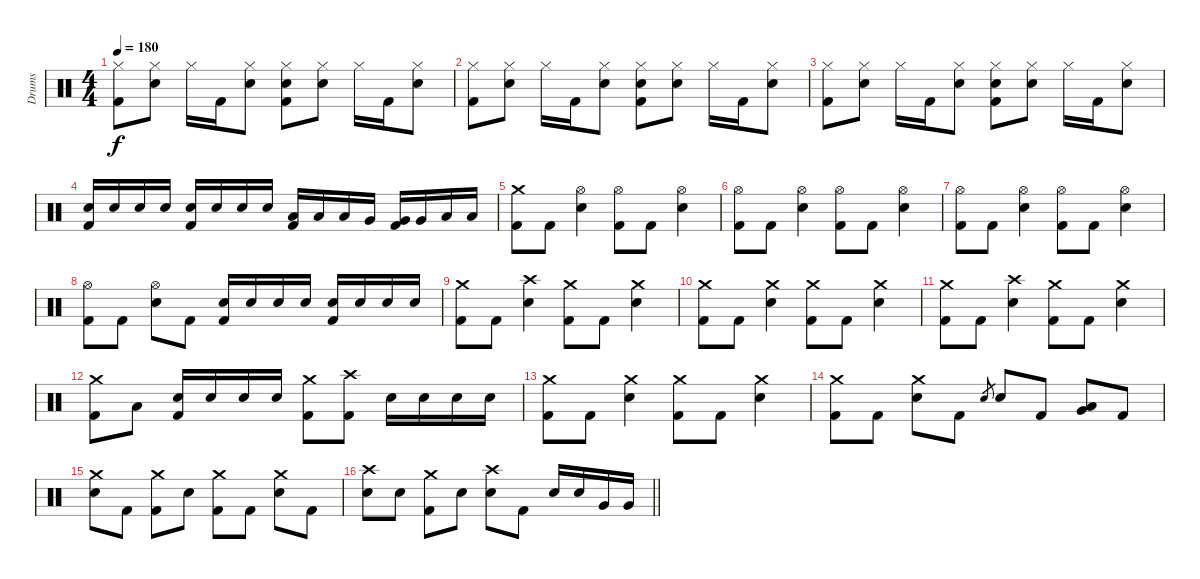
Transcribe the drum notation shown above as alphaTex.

\track ("Drums" "Drums") {instrument percussion}
\staff {score}
\articulation defaults
\ts (4 4)
\tempo 180
\clef neutral
\ks c
("Hi-Hat (closed)" "Kick (hit) 2").8{dy f volume 12 balance 8} ("Hi-Hat (closed)" "Electric Snare (hit)").8{volume 8 balance 16} "Hi-Hat (closed)".16 "Kick (hit) 2".16 ("Hi-Hat (closed)" "Electric Snare (hit)").8 ("Hi-Hat (closed)" "Electric Snare (hit)" "Kick (hit) 2").8{volume 12 balance 8} ("Hi-Hat (closed)" "Electric Snare (hit)").8{volume 8 balance 16} "Hi-Hat (closed)".16 "Kick (hit) 2".16 ("Hi-Hat (closed)" "Electric Snare (hit)").8 |
("Hi-Hat (closed)" "Kick (hit) 2").8{volume 12 balance 8} ("Hi-Hat (closed)" "Electric Snare (hit)").8{volume 8 balance 16} "Hi-Hat (closed)".16 "Kick (hit) 2".16 ("Hi-Hat (closed)" "Electric Snare (hit)").8 ("Hi-Hat (closed)" "Electric Snare (hit)" "Kick (hit) 2").8{volume 12 balance 8} ("Hi-Hat (closed)" "Electric Snare (hit)").8{volume 8 balance 16} "Hi-Hat (closed)".16 "Kick (hit) 2".16 ("Hi-Hat (closed)" "Electric Snare (hit)").8 |
("Hi-Hat (closed)" "Kick (hit) 2").8{volume 12 balance 8} ("Hi-Hat (closed)" "Electric Snare (hit)").8{volume 8 balance 16} "Hi-Hat (closed)".16 "Kick (hit) 2".16 ("Hi-Hat (closed)" "Electric Snare (hit)").8 ("Hi-Hat (closed)" "Electric Snare (hit)" "Kick (hit) 2").8{volume 12 balance 8} ("Hi-Hat (closed)" "Electric Snare (hit)").8{volume 8 balance 16} "Hi-Hat (closed)".16 "Kick (hit) 2".16 ("Hi-Hat (closed)" "Electric Snare (hit)").8 |
("Electric Snare (hit)" "Kick (hit) 2").16{volume 12 balance 8} "Electric Snare (hit)".16 "Electric Snare (hit)".16 "Electric Snare (hit)".16 ("Electric Snare (hit)" "Kick (hit) 2").16 "Electric Snare (hit)".16 "Electric Snare (hit)".16 "Electric Snare (hit)".16 ("Low Tom (hit)" "Kick (hit) 2").16 "Low Tom (hit)".16 "Low Tom (hit)".16 "Very Low Tom (hit)".16 ("Very Low Tom (hit)" "Kick (hit) 2").16 "Very Low Tom (hit)".16 "Low Floor Tom (hit)".16 "Low Floor Tom (hit)".16 |
("Crash medium (hit)" "Kick (hit) 2").8 "Kick (hit) 2".8 ("Hi-Hat (open)" "Electric Snare (hit)").4 ("Hi-Hat (open)" "Kick (hit) 2").8 "Kick (hit) 2".8 ("Hi-Hat (open)" "Electric Snare (hit)").4 |
("Hi-Hat (open)" "Kick (hit) 2").8 "Kick (hit) 2".8 ("Hi-Hat (open)" "Electric Snare (hit)").4 ("Hi-Hat (open)" "Kick (hit) 2").8 "Kick (hit) 2".8 ("Hi-Hat (open)" "Electric Snare (hit)").4 |
("Hi-Hat (open)" "Kick (hit) 2").8 "Kick (hit) 2".8 ("Hi-Hat (open)" "Electric Snare (hit)").4 ("Hi-Hat (open)" "Kick (hit) 2").8 "Kick (hit) 2".8 ("Hi-Hat (open)" "Electric Snare (hit)").4 |
("Hi-Hat (open)" "Kick (hit) 2").8 "Kick (hit) 2".8 ("Hi-Hat (open)" "Electric Snare (hit)").8 "Kick (hit) 2".8 ("Electric Snare (hit)" "Kick (hit) 2").16 "Electric Snare (hit)".16 "Electric Snare (hit)".16 "Electric Snare (hit)".16 ("Electric Snare (hit)" "Kick (hit) 2").16 "Electric Snare (hit)".16 "Electric Snare (hit)".16 "Electric Snare (hit)".16 |
("Crash medium (hit)" "Kick (hit) 2").8 "Kick (hit) 2".8 ("Crash high (hit)" "Electric Snare (hit)").4 ("Crash medium (hit)" "Kick (hit) 2").8 "Kick (hit) 2".8 ("Crash medium (hit)" "Electric Snare (hit)").4 |
("Crash medium (hit)" "Kick (hit) 2").8 "Kick (hit) 2".8 ("Crash medium (hit)" "Electric Snare (hit)").4 ("Crash medium (hit)" "Kick (hit) 2").8 "Kick (hit) 2".8 ("Crash medium (hit)" "Electric Snare (hit)").4 |
("Crash medium (hit)" "Kick (hit) 2").8 "Kick (hit) 2".8 ("Crash high (hit)" "Electric Snare (hit)").4 ("Crash medium (hit)" "Kick (hit) 2").8 "Kick (hit) 2".8 ("Crash medium (hit)" "Electric Snare (hit)").4 |
("Crash medium (hit)" "Kick (hit) 2").8 "Low Floor Tom (hit)".8 ("Electric Snare (hit)" "Kick (hit) 2").16 "Electric Snare (hit)".16 "Electric Snare (hit)".16 "Electric Snare (hit)".16 ("Crash medium (hit)" "Kick (hit) 2").8 ("Crash high (hit)" "Kick (hit) 2").8 "Electric Snare (hit)".16 "Electric Snare (hit)".16 "Electric Snare (hit)".16 "Electric Snare (hit)".16 |
("Crash medium (hit)" "Kick (hit) 2").8 "Kick (hit) 2".8 ("Crash medium (hit)" "Electric Snare (hit)").4 ("Crash medium (hit)" "Kick (hit) 2").8 "Kick (hit) 2".8 ("Crash medium (hit)" "Electric Snare (hit)").4 |
("Crash medium (hit)" "Kick (hit) 2").8 "Kick (hit) 2".8 ("Crash medium (hit)" "Electric Snare (hit)").8 "Kick (hit) 2".8 "Electric Snare (hit)".8{gr} "Electric Snare (hit)".8 "Kick (hit) 2".8 ("Low Tom (hit)" "Very Low Tom (hit)").8 "Kick (hit) 2".8 |
("Crash medium (hit)" "Electric Snare (hit)").8 "Kick (hit) 2".8 ("Crash medium (hit)" "Kick (hit) 2").8 "Electric Snare (hit)".8 ("Crash medium (hit)" "Kick (hit) 2").8 "Kick (hit) 2".8 ("Crash medium (hit)" "Electric Snare (hit)").8 "Kick (hit) 2".8 |
\barLineRight lightlight
("Crash high (hit)" "Electric Snare (hit)").8 "Electric Snare (hit)".8 ("Crash medium (hit)" "Kick (hit) 2").8 "Electric Snare (hit)".8 ("Crash high (hit)" "Electric Snare (hit)").8 "Kick (hit) 2".8 "Electric Snare (hit)".16 "Electric Snare (hit)".16 "Very Low Tom (hit)".16 "Very Low Tom (hit)".16
